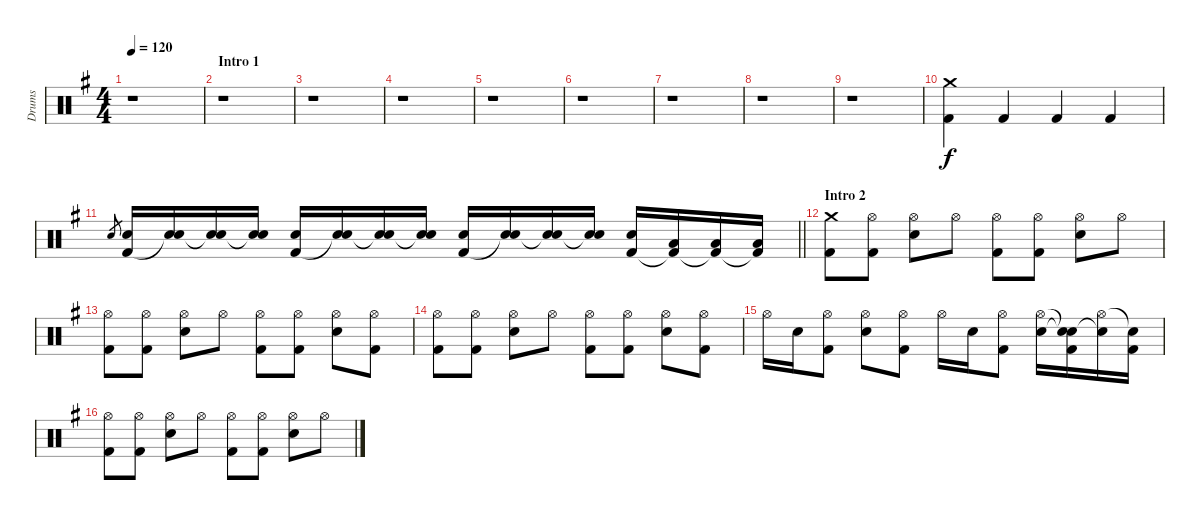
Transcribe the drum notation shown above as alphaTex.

\track ("Drums" "Drums") {instrument percussion}
\staff {score}
\articulation defaults
\ts (4 4)
\tempo 120
\tempo 145
\tempo 120
\clef neutral
\ks g
r.1{dy f} |
\section ("" "Intro 1")
r.1 |
r.1 |
r.1 |
r.1 |
r.1 |
r.1 |
r.1 |
r.1 |
("Crash medium (hit)" "Kick (hit) 2").4 "Kick (hit) 2".4 "Kick (hit) 2".4 "Kick (hit) 2".4 |
\barLineRight lightlight "Electric Snare (hit)".8{gr}
("Electric Snare (hit)" "Kick (hit) 2").16 ("Electric Snare (hit)" "Snare (hit)"{t}).16 ("Electric Snare (hit)" "Snare (hit)"{t}).16 ("Electric Snare (hit)" "Snare (hit)"{t}).16 ("Electric Snare (hit)" "Kick (hit) 2").16 ("Electric Snare (hit)" "Snare (hit)"{t}).16 ("Electric Snare (hit)" "Snare (hit)"{t}).16 ("Electric Snare (hit)" "Snare (hit)"{t}).16 ("Electric Snare (hit)" "Kick (hit) 2").16 ("Electric Snare (hit)" "Snare (hit)"{t}).16 ("Electric Snare (hit)" "Snare (hit)"{t}).16 ("Electric Snare (hit)" "Snare (hit)"{t}).16 ("Electric Snare (hit)" "Kick (hit) 2").16 ("Low Tom (hit)" "Kick (hit) 2"{t}).16 ("Low Floor Tom (hit)" "Kick (hit) 2"{t}).16 ("Low Floor Tom (hit)" "Kick (hit) 2"{t}).16 |
\section ("" "Intro 2")
("Crash medium (hit)" "Kick (hit) 2").8 ("Hi-Hat (open)" "Kick (hit) 2").8 ("Hi-Hat (open)" "Electric Snare (hit)").8 "Hi-Hat (open)".8 ("Hi-Hat (open)" "Kick (hit) 2").8 ("Hi-Hat (open)" "Kick (hit) 2").8 ("Hi-Hat (open)" "Electric Snare (hit)").8 "Hi-Hat (open)".8 |
("Hi-Hat (open)" "Kick (hit) 2").8 ("Hi-Hat (open)" "Kick (hit) 2").8 ("Hi-Hat (open)" "Electric Snare (hit)").8 "Hi-Hat (open)".8 ("Hi-Hat (open)" "Kick (hit) 2").8 ("Hi-Hat (open)" "Kick (hit) 2").8 ("Hi-Hat (open)" "Electric Snare (hit)").8 ("Hi-Hat (open)" "Kick (hit) 2").8 |
("Hi-Hat (open)" "Kick (hit) 2").8 ("Hi-Hat (open)" "Kick (hit) 2").8 ("Hi-Hat (open)" "Electric Snare (hit)").8 "Hi-Hat (open)".8 ("Hi-Hat (open)" "Kick (hit) 2").8 ("Hi-Hat (open)" "Kick (hit) 2").8 ("Hi-Hat (open)" "Electric Snare (hit)").8 ("Hi-Hat (open)" "Kick (hit) 2").8 |
"Hi-Hat (open)".16 "Electric Snare (hit)".16 ("Hi-Hat (open)" "Kick (hit) 2").8 ("Hi-Hat (open)" "Electric Snare (hit)").8 ("Hi-Hat (open)" "Kick (hit) 2").8 "Hi-Hat (open)".16 "Electric Snare (hit)".16 ("Hi-Hat (open)" "Kick (hit) 2").8 ("Hi-Hat (open)" "Electric Snare (hit)").16 ("Snare (hit)"{t} "Snare (hit)"{t} "Kick (hit) 2").16 ("Hi-Hat (open)" "Snare (hit)"{t}).16 ("Snare (hit)"{t} "Kick (hit) 2").16 |
("Hi-Hat (open)" "Kick (hit) 2").8 ("Hi-Hat (open)" "Kick (hit) 2").8 ("Hi-Hat (open)" "Electric Snare (hit)").8 "Hi-Hat (open)".8 ("Hi-Hat (open)" "Kick (hit) 2").8 ("Hi-Hat (open)" "Kick (hit) 2").8 ("Hi-Hat (open)" "Electric Snare (hit)").8 "Hi-Hat (open)".8
